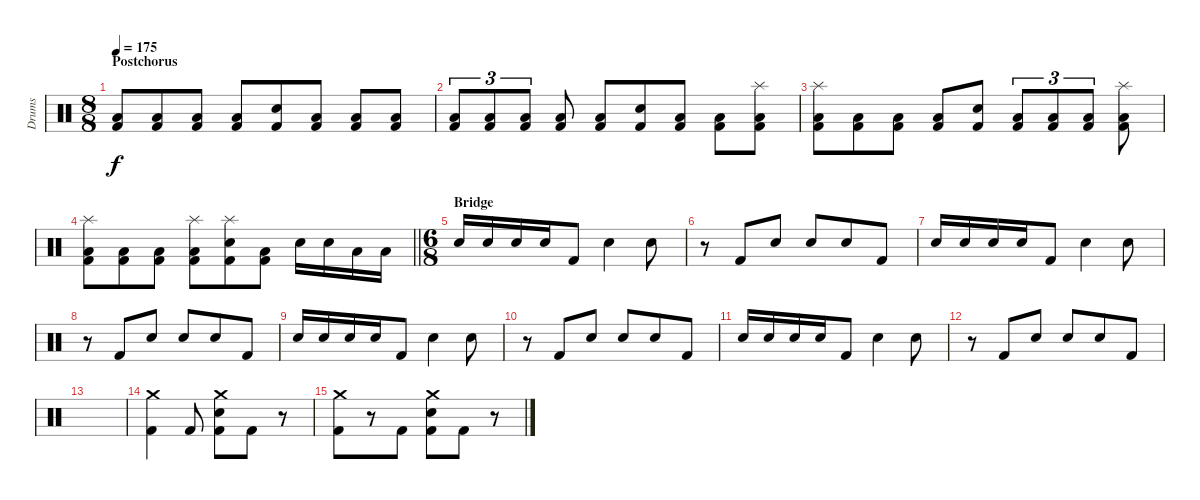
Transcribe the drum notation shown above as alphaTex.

\track ("Drums" "Drums") {instrument percussion}
\staff {score}
\articulation defaults
\ts (8 8)
\section ("" "Postchorus")
\tempo 175
\clef neutral
\ks c
("Low Floor Tom (hit)" "Kick (hit) 2").8{dy f} ("Low Floor Tom (hit)" "Kick (hit) 2").8 ("Low Floor Tom (hit)" "Kick (hit) 2").8 ("Low Floor Tom (hit)" "Kick (hit) 2").8 ("Electric Snare (hit)" "Kick (hit) 2").8 ("Low Floor Tom (hit)" "Kick (hit) 2").8 ("Low Floor Tom (hit)" "Kick (hit) 2").8 ("Low Floor Tom (hit)" "Kick (hit) 2").8 |
("Low Floor Tom (hit)" "Kick (hit) 2").8{tu (3 2)} ("Low Floor Tom (hit)" "Kick (hit) 2").8{tu (3 2)} ("Low Floor Tom (hit)" "Kick (hit) 2").8{tu (3 2)} ("Low Floor Tom (hit)" "Kick (hit) 2").8 ("Low Floor Tom (hit)" "Kick (hit) 2").8 ("Electric Snare (hit)" "Kick (hit) 2").8 ("Low Floor Tom (hit)" "Kick (hit) 2").8 ("Low Floor Tom (hit)" "Kick (hit) 2").8 ("Splash (hit)" "Low Floor Tom (hit)" "Kick (hit) 2").8 |
("Splash (hit)" "Low Floor Tom (hit)" "Kick (hit) 2").8 ("Low Floor Tom (hit)" "Kick (hit) 2").8 ("Low Floor Tom (hit)" "Kick (hit) 2").8 ("Low Floor Tom (hit)" "Kick (hit) 2").8 ("Electric Snare (hit)" "Kick (hit) 2").8 ("Low Floor Tom (hit)" "Kick (hit) 2").8{tu (3 2)} ("Low Floor Tom (hit)" "Kick (hit) 2").8{tu (3 2)} ("Low Floor Tom (hit)" "Kick (hit) 2").8{tu (3 2)} ("Splash (hit)" "Low Floor Tom (hit)" "Kick (hit) 2").8 |
\barLineRight lightlight
("Splash (hit)" "Low Floor Tom (hit)" "Kick (hit) 2").8 ("Low Floor Tom (hit)" "Kick (hit) 2").8 ("Low Floor Tom (hit)" "Kick (hit) 2").8 ("Splash (hit)" "Low Floor Tom (hit)" "Kick (hit) 2").8 ("Splash (hit)" "Electric Snare (hit)" "Kick (hit) 2").8 ("Low Floor Tom (hit)" "Kick (hit) 2").8 "Electric Snare (hit)".16 "Electric Snare (hit)".16 "Low Tom (hit)".16 "Low Tom (hit)".16 |
\ts (6 8)
\section ("" "Bridge")
"Electric Snare (hit)".16 "Electric Snare (hit)".16 "Electric Snare (hit)".16 "Electric Snare (hit)".16 "Kick (hit) 2".8 "Electric Snare (hit)".4 "Electric Snare (hit)".8 |
r.8 "Kick (hit) 2".8 "Electric Snare (hit)".8 "Electric Snare (hit)".8 "Electric Snare (hit)".8 "Kick (hit) 2".8 |
"Electric Snare (hit)".16 "Electric Snare (hit)".16 "Electric Snare (hit)".16 "Electric Snare (hit)".16 "Kick (hit) 2".8 "Electric Snare (hit)".4 "Electric Snare (hit)".8 |
r.8 "Kick (hit) 2".8 "Electric Snare (hit)".8 "Electric Snare (hit)".8 "Electric Snare (hit)".8 "Kick (hit) 2".8 |
"Electric Snare (hit)".16 "Electric Snare (hit)".16 "Electric Snare (hit)".16 "Electric Snare (hit)".16 "Kick (hit) 2".8 "Electric Snare (hit)".4 "Electric Snare (hit)".8 |
r.8 "Kick (hit) 2".8 "Electric Snare (hit)".8 "Electric Snare (hit)".8 "Electric Snare (hit)".8 "Kick (hit) 2".8 |
"Electric Snare (hit)".16 "Electric Snare (hit)".16 "Electric Snare (hit)".16 "Electric Snare (hit)".16 "Kick (hit) 2".8 "Electric Snare (hit)".4 "Electric Snare (hit)".8 |
r.8 "Kick (hit) 2".8 "Electric Snare (hit)".8 "Electric Snare (hit)".8 "Electric Snare (hit)".8 "Kick (hit) 2".8 |
|
("Crash medium (hit)" "Kick (hit) 2").4 "Kick (hit) 2".8 ("Crash medium (hit)" "Electric Snare (hit)" "Kick (hit) 2").8 "Kick (hit) 2".8 r.8 |
("Crash medium (hit)" "Kick (hit) 2").8 r.8 "Kick (hit) 2".8 ("Crash medium (hit)" "Electric Snare (hit)" "Kick (hit) 2").8 "Kick (hit) 2".8 r.8
